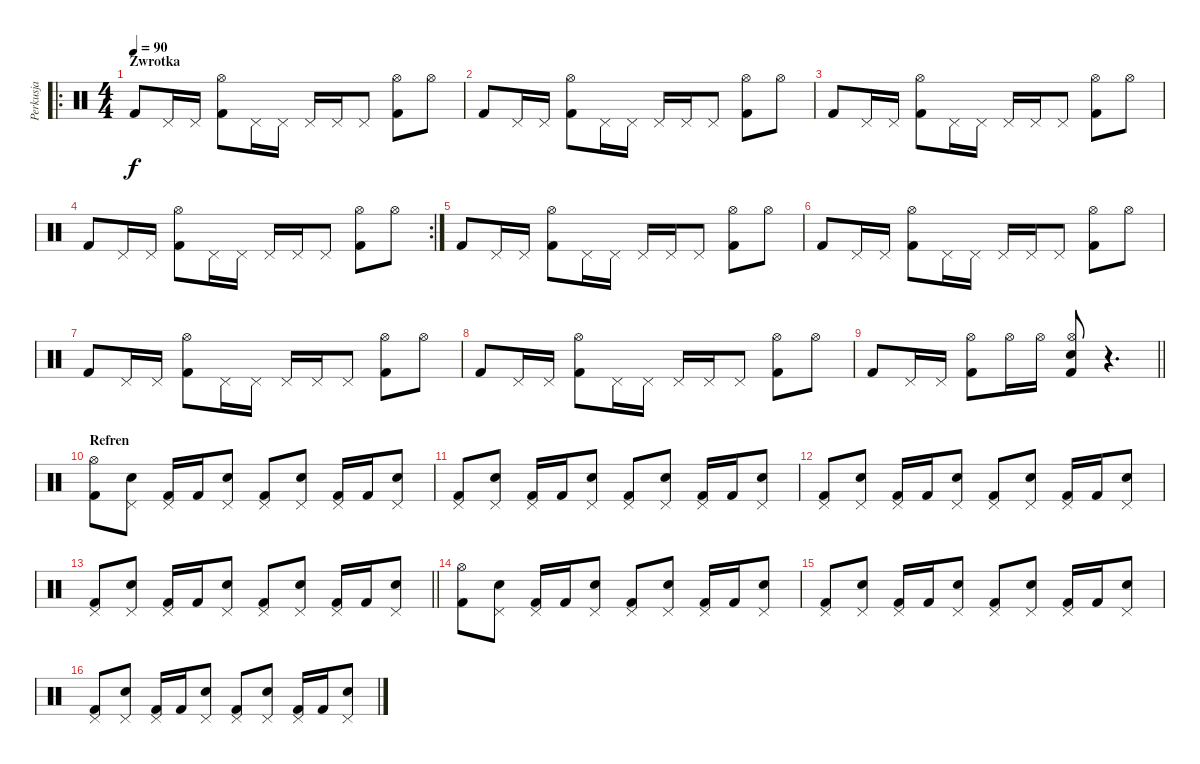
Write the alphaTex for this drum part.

\track ("Perkusja" "Perkusja") {instrument percussion}
\staff {score}
\articulation defaults
\ro
\ts (4 4)
\section ("" "Zwrotka")
\tempo 90
\clef neutral
\ks c "Kick (hit) 2".8{dy f} "Pedal Hi-Hat (hit)".16 "Pedal Hi-Hat (hit)".16
("Hi-Hat (open)" "Kick (hit) 2").8 "Pedal Hi-Hat (hit)".16 "Pedal Hi-Hat (hit)".16 "Pedal Hi-Hat (hit)".16 "Pedal Hi-Hat (hit)".16 "Pedal Hi-Hat (hit)".8 ("Hi-Hat (open)" "Kick (hit) 2").8 "Hi-Hat (open)".8 |
"Kick (hit) 2".8 "Pedal Hi-Hat (hit)".16 "Pedal Hi-Hat (hit)".16 ("Hi-Hat (open)" "Kick (hit) 2").8 "Pedal Hi-Hat (hit)".16 "Pedal Hi-Hat (hit)".16 "Pedal Hi-Hat (hit)".16 "Pedal Hi-Hat (hit)".16 "Pedal Hi-Hat (hit)".8 ("Hi-Hat (open)" "Kick (hit) 2").8 "Hi-Hat (open)".8 |
"Kick (hit) 2".8 "Pedal Hi-Hat (hit)".16 "Pedal Hi-Hat (hit)".16 ("Hi-Hat (open)" "Kick (hit) 2").8 "Pedal Hi-Hat (hit)".16 "Pedal Hi-Hat (hit)".16 "Pedal Hi-Hat (hit)".16 "Pedal Hi-Hat (hit)".16 "Pedal Hi-Hat (hit)".8 ("Hi-Hat (open)" "Kick (hit) 2").8 "Hi-Hat (open)".8 |
\rc 2 "Kick (hit) 2".8 "Pedal Hi-Hat (hit)".16 "Pedal Hi-Hat (hit)".16
("Hi-Hat (open)" "Kick (hit) 2").8 "Pedal Hi-Hat (hit)".16 "Pedal Hi-Hat (hit)".16 "Pedal Hi-Hat (hit)".16 "Pedal Hi-Hat (hit)".16 "Pedal Hi-Hat (hit)".8 ("Hi-Hat (open)" "Kick (hit) 2").8 "Hi-Hat (open)".8 |
"Kick (hit) 2".8 "Pedal Hi-Hat (hit)".16 "Pedal Hi-Hat (hit)".16 ("Hi-Hat (open)" "Kick (hit) 2").8 "Pedal Hi-Hat (hit)".16 "Pedal Hi-Hat (hit)".16 "Pedal Hi-Hat (hit)".16 "Pedal Hi-Hat (hit)".16 "Pedal Hi-Hat (hit)".8 ("Hi-Hat (open)" "Kick (hit) 2").8 "Hi-Hat (open)".8 |
"Kick (hit) 2".8 "Pedal Hi-Hat (hit)".16 "Pedal Hi-Hat (hit)".16 ("Hi-Hat (open)" "Kick (hit) 2").8 "Pedal Hi-Hat (hit)".16 "Pedal Hi-Hat (hit)".16 "Pedal Hi-Hat (hit)".16 "Pedal Hi-Hat (hit)".16 "Pedal Hi-Hat (hit)".8 ("Hi-Hat (open)" "Kick (hit) 2").8 "Hi-Hat (open)".8 |
"Kick (hit) 2".8 "Pedal Hi-Hat (hit)".16 "Pedal Hi-Hat (hit)".16 ("Hi-Hat (open)" "Kick (hit) 2").8 "Pedal Hi-Hat (hit)".16 "Pedal Hi-Hat (hit)".16 "Pedal Hi-Hat (hit)".16 "Pedal Hi-Hat (hit)".16 "Pedal Hi-Hat (hit)".8 ("Hi-Hat (open)" "Kick (hit) 2").8 "Hi-Hat (open)".8 |
"Kick (hit) 2".8 "Pedal Hi-Hat (hit)".16 "Pedal Hi-Hat (hit)".16 ("Hi-Hat (open)" "Kick (hit) 2").8 "Pedal Hi-Hat (hit)".16 "Pedal Hi-Hat (hit)".16 "Pedal Hi-Hat (hit)".16 "Pedal Hi-Hat (hit)".16 "Pedal Hi-Hat (hit)".8 ("Hi-Hat (open)" "Kick (hit) 2").8 "Hi-Hat (open)".8 |
\barLineRight lightlight "Kick (hit) 2".8 "Pedal Hi-Hat (hit)".16 "Pedal Hi-Hat (hit)".16
("Hi-Hat (open)" "Kick (hit) 2").8 "Hi-Hat (open)".16 "Hi-Hat (open)".16 ("Hi-Hat (open)" "Kick (hit) 2" "Electric Snare (hit)").8 r.4{d} |
\section ("" "Refren")
("Hi-Hat (open)" "Kick (hit) 2").8 ("Pedal Hi-Hat (hit)" "Electric Snare (hit)").8 ("Pedal Hi-Hat (hit)" "Kick (hit) 2").16 "Kick (hit) 2".16 ("Pedal Hi-Hat (hit)" "Electric Snare (hit)").8 ("Pedal Hi-Hat (hit)" "Kick (hit) 2").8 ("Pedal Hi-Hat (hit)" "Electric Snare (hit)").8 ("Pedal Hi-Hat (hit)" "Kick (hit) 2").16 "Kick (hit) 2".16 ("Pedal Hi-Hat (hit)" "Electric Snare (hit)").8 |
("Pedal Hi-Hat (hit)" "Kick (hit) 2").8 ("Pedal Hi-Hat (hit)" "Electric Snare (hit)").8 ("Pedal Hi-Hat (hit)" "Kick (hit) 2").16 "Kick (hit) 2".16 ("Pedal Hi-Hat (hit)" "Electric Snare (hit)").8 ("Pedal Hi-Hat (hit)" "Kick (hit) 2").8 ("Pedal Hi-Hat (hit)" "Electric Snare (hit)").8 ("Pedal Hi-Hat (hit)" "Kick (hit) 2").16 "Kick (hit) 2".16 ("Pedal Hi-Hat (hit)" "Electric Snare (hit)").8 |
("Pedal Hi-Hat (hit)" "Kick (hit) 2").8 ("Pedal Hi-Hat (hit)" "Electric Snare (hit)").8 ("Pedal Hi-Hat (hit)" "Kick (hit) 2").16 "Kick (hit) 2".16 ("Pedal Hi-Hat (hit)" "Electric Snare (hit)").8 ("Pedal Hi-Hat (hit)" "Kick (hit) 2").8 ("Pedal Hi-Hat (hit)" "Electric Snare (hit)").8 ("Pedal Hi-Hat (hit)" "Kick (hit) 2").16 "Kick (hit) 2".16 ("Pedal Hi-Hat (hit)" "Electric Snare (hit)").8 |
\barLineRight lightlight
("Pedal Hi-Hat (hit)" "Kick (hit) 2").8 ("Pedal Hi-Hat (hit)" "Electric Snare (hit)").8 ("Pedal Hi-Hat (hit)" "Kick (hit) 2").16 "Kick (hit) 2".16 ("Pedal Hi-Hat (hit)" "Electric Snare (hit)").8 ("Pedal Hi-Hat (hit)" "Kick (hit) 2").8 ("Pedal Hi-Hat (hit)" "Electric Snare (hit)").8 ("Pedal Hi-Hat (hit)" "Kick (hit) 2").16 "Kick (hit) 2".16 ("Pedal Hi-Hat (hit)" "Electric Snare (hit)").8 |
("Hi-Hat (open)" "Kick (hit) 2").8 ("Pedal Hi-Hat (hit)" "Electric Snare (hit)").8 ("Pedal Hi-Hat (hit)" "Kick (hit) 2").16 "Kick (hit) 2".16 ("Pedal Hi-Hat (hit)" "Electric Snare (hit)").8 ("Pedal Hi-Hat (hit)" "Kick (hit) 2").8 ("Pedal Hi-Hat (hit)" "Electric Snare (hit)").8 ("Pedal Hi-Hat (hit)" "Kick (hit) 2").16 "Kick (hit) 2".16 ("Pedal Hi-Hat (hit)" "Electric Snare (hit)").8 |
("Pedal Hi-Hat (hit)" "Kick (hit) 2").8 ("Pedal Hi-Hat (hit)" "Electric Snare (hit)").8 ("Pedal Hi-Hat (hit)" "Kick (hit) 2").16 "Kick (hit) 2".16 ("Pedal Hi-Hat (hit)" "Electric Snare (hit)").8 ("Pedal Hi-Hat (hit)" "Kick (hit) 2").8 ("Pedal Hi-Hat (hit)" "Electric Snare (hit)").8 ("Pedal Hi-Hat (hit)" "Kick (hit) 2").16 "Kick (hit) 2".16 ("Pedal Hi-Hat (hit)" "Electric Snare (hit)").8 |
("Pedal Hi-Hat (hit)" "Kick (hit) 2").8 ("Pedal Hi-Hat (hit)" "Electric Snare (hit)").8 ("Pedal Hi-Hat (hit)" "Kick (hit) 2").16 "Kick (hit) 2".16 ("Pedal Hi-Hat (hit)" "Electric Snare (hit)").8 ("Pedal Hi-Hat (hit)" "Kick (hit) 2").8 ("Pedal Hi-Hat (hit)" "Electric Snare (hit)").8 ("Pedal Hi-Hat (hit)" "Kick (hit) 2").16 "Kick (hit) 2".16 ("Pedal Hi-Hat (hit)" "Electric Snare (hit)").8
